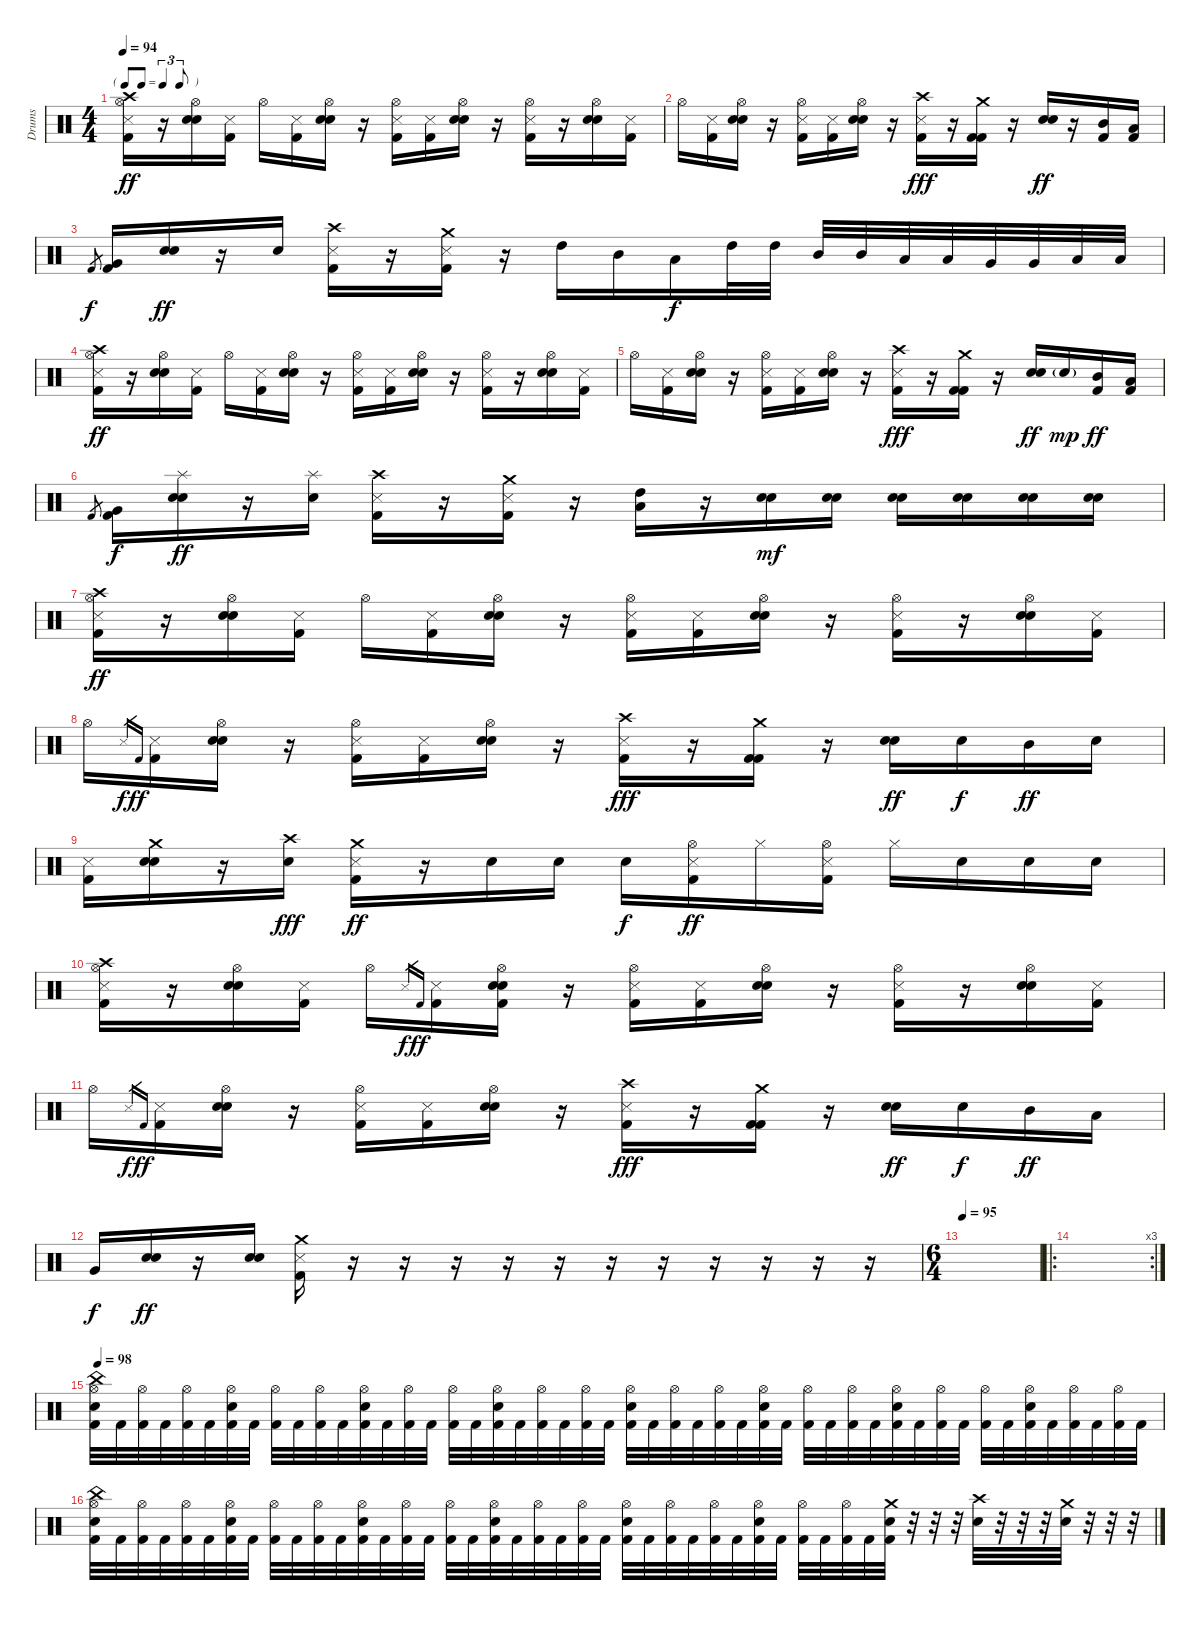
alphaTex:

\track ("Drums" "Drums") {instrument percussion}
\staff {score}
\articulation defaults
\ts (4 4)
\tf triplet8th
\tempo 94
\clef neutral
\ks c
("Hi-Hat (open)" "Crash high (hit)" "Metronome (hit)" "Kick (hit) 2").16{dy ff} r.16 ("Hi-Hat (open)" "Electric Snare (hit)" "Metronome (bell)").16 ("Metronome (hit)" "Kick (hit) 2").16 "Hi-Hat (open)".16 ("Metronome (hit)" "Kick (hit) 2").16 ("Hi-Hat (open)" "Electric Snare (hit)" "Metronome (bell)").16 r.16 ("Hi-Hat (open)" "Metronome (hit)" "Kick (hit) 2").16 ("Metronome (hit)" "Kick (hit) 2").16 ("Hi-Hat (open)" "Electric Snare (hit)" "Metronome (bell)").16 r.16 ("Hi-Hat (open)" "Metronome (hit)" "Kick (hit) 2").16 r.16 ("Hi-Hat (open)" "Electric Snare (hit)" "Metronome (bell)").16 ("Metronome (hit)" "Kick (hit) 2").16 |
"Hi-Hat (open)".16 ("Metronome (hit)" "Kick (hit) 2").16 ("Hi-Hat (open)" "Electric Snare (hit)" "Metronome (bell)").16 r.16 ("Hi-Hat (open)" "Metronome (hit)" "Kick (hit) 2").16 ("Metronome (hit)" "Kick (hit) 2").16 ("Hi-Hat (open)" "Electric Snare (hit)" "Metronome (bell)").16 r.16 ("Crash high (hit)" "Metronome (hit)" "Kick (hit) 2").16{dy fff} r.16 ("Crash medium (hit)" "Kick (hit) 2" "Kick (hit) 2").16 r.16 ("Electric Snare (hit)" "Metronome (bell)").16{dy ff} r.16 ("Mid Tom (hit)" "Kick (hit) 2").16 ("Low Tom (hit)" "Kick (hit) 2").16 |
"Kick (hit) 2".8{gr dy f} ("Very Low Tom (hit)" "Kick (hit) 2").16 ("Electric Snare (hit)" "Metronome (bell)").16{dy ff} r.16 "Electric Snare (hit)".16 ("Crash high (hit)" "Metronome (hit)" "Kick (hit) 2").16 r.16 ("Crash medium (hit)" "Metronome (hit)" "Kick (hit) 2").16 r.16 "High Tom (hit)".16 "Mid Tom (hit)".16 "Low Tom (hit)".16{dy f} "High Tom (hit)".32 "High Tom (hit)".32 "Mid Tom (hit)".32 "Mid Tom (hit)".32 "Low Tom (hit)".32 "Low Tom (hit)".32 "Very Low Tom (hit)".32 "Very Low Tom (hit)".32 "Low Floor Tom (hit)".32 "Low Floor Tom (hit)".32 |
("Hi-Hat (open)" "Crash high (hit)" "Metronome (hit)" "Kick (hit) 2").16{dy ff} r.16 ("Hi-Hat (open)" "Electric Snare (hit)" "Metronome (bell)").16 ("Metronome (hit)" "Kick (hit) 2").16 "Hi-Hat (open)".16 ("Metronome (hit)" "Kick (hit) 2").16 ("Hi-Hat (open)" "Electric Snare (hit)" "Metronome (bell)").16 r.16 ("Hi-Hat (open)" "Metronome (hit)" "Kick (hit) 2").16 ("Metronome (hit)" "Kick (hit) 2").16 ("Hi-Hat (open)" "Electric Snare (hit)" "Metronome (bell)").16 r.16 ("Hi-Hat (open)" "Metronome (hit)" "Kick (hit) 2").16 r.16 ("Hi-Hat (open)" "Electric Snare (hit)" "Metronome (bell)").16 ("Metronome (hit)" "Kick (hit) 2").16 |
"Hi-Hat (open)".16 ("Metronome (hit)" "Kick (hit) 2").16 ("Hi-Hat (open)" "Electric Snare (hit)" "Metronome (bell)").16 r.16 ("Hi-Hat (open)" "Metronome (hit)" "Kick (hit) 2").16 ("Metronome (hit)" "Kick (hit) 2").16 ("Hi-Hat (open)" "Electric Snare (hit)" "Metronome (bell)").16 r.16 ("Crash high (hit)" "Metronome (hit)" "Kick (hit) 2").16{dy fff} r.16 ("Crash medium (hit)" "Kick (hit) 2" "Kick (hit) 2").16 r.16 ("Electric Snare (hit)" "Metronome (bell)").16{dy ff} "Electric Snare (hit)"{g}.16{dy mp} ("Mid Tom (hit)" "Kick (hit) 2").16{dy ff} ("Low Tom (hit)" "Kick (hit) 2").16 |
"Kick (hit) 2".8{gr} ("Very Low Tom (hit)" "Kick (hit) 2").16{dy f} ("Splash (hit)" "Electric Snare (hit)" "Metronome (bell)").16{dy ff} r.16 ("Splash (hit)" "Electric Snare (hit)").16 ("Crash high (hit)" "Metronome (hit)" "Kick (hit) 2").16 r.16 ("Crash medium (hit)" "Metronome (hit)" "Kick (hit) 2").16 r.16 ("Low Tom (hit)" "High Tom (hit)").16 r.16 ("Electric Snare (hit)" "Metronome (bell)").16{dy mf} ("Electric Snare (hit)" "Metronome (bell)").16 ("Electric Snare (hit)" "Metronome (bell)").16 ("Electric Snare (hit)" "Metronome (bell)").16 ("Electric Snare (hit)" "Metronome (bell)").16 ("Electric Snare (hit)" "Metronome (bell)").16 |
("Hi-Hat (open)" "Crash high (hit)" "Metronome (hit)" "Kick (hit) 2").16{dy ff} r.16 ("Hi-Hat (open)" "Electric Snare (hit)" "Metronome (bell)").16 ("Metronome (hit)" "Kick (hit) 2").16 "Hi-Hat (open)".16 ("Metronome (hit)" "Kick (hit) 2").16 ("Hi-Hat (open)" "Electric Snare (hit)" "Metronome (bell)").16 r.16 ("Hi-Hat (open)" "Metronome (hit)" "Kick (hit) 2").16 ("Metronome (hit)" "Kick (hit) 2").16 ("Hi-Hat (open)" "Electric Snare (hit)" "Metronome (bell)").16 r.16 ("Hi-Hat (open)" "Metronome (hit)" "Kick (hit) 2").16 r.16 ("Hi-Hat (open)" "Electric Snare (hit)" "Metronome (bell)").16 ("Metronome (hit)" "Kick (hit) 2").16 |
"Hi-Hat (open)".16 "Metronome (hit)".16{gr dy f} "Kick (hit) 2".16{gr dy ff} ("Metronome (hit)" "Kick (hit) 2").16 ("Hi-Hat (open)" "Electric Snare (hit)" "Metronome (bell)").16 r.16 ("Hi-Hat (open)" "Metronome (hit)" "Kick (hit) 2").16 ("Metronome (hit)" "Kick (hit) 2").16 ("Hi-Hat (open)" "Electric Snare (hit)" "Metronome (bell)").16 r.16 ("Crash high (hit)" "Metronome (hit)" "Kick (hit) 2").16{dy fff} r.16 ("Crash medium (hit)" "Kick (hit) 2" "Kick (hit) 2").16 r.16 ("Electric Snare (hit)" "Metronome (bell)").16{dy ff} "Electric Snare (hit)".16{dy f} "Mid Tom (hit)".16{dy ff} "Electric Snare (hit)".16 |
("Metronome (hit)" "Kick (hit) 2").16 ("Crash medium (hit)" "Electric Snare (hit)" "Metronome (bell)").16 r.16 ("Crash high (hit)" "Electric Snare (hit)").16{dy fff} ("Crash medium (hit)" "Metronome (hit)" "Kick (hit) 2").16{dy ff} r.16 "Electric Snare (hit)".16 "Electric Snare (hit)".16 "Electric Snare (hit)".16{dy f} ("Hi-Hat (open)" "Metronome (hit)" "Kick (hit) 2").16{dy ff} "Hi-Hat (closed)".16 ("Hi-Hat (open)" "Metronome (hit)" "Kick (hit) 2").16 "Hi-Hat (closed)".16 "Electric Snare (hit)".16 "Electric Snare (hit)".16 "Electric Snare (hit)".16 |
("Hi-Hat (open)" "Crash high (hit)" "Metronome (hit)" "Kick (hit) 2").16 r.16 ("Hi-Hat (open)" "Electric Snare (hit)" "Metronome (bell)").16 ("Metronome (hit)" "Kick (hit) 2").16 "Hi-Hat (open)".16 "Metronome (hit)".16{gr dy f} "Kick (hit) 2".16{gr dy ff} ("Metronome (hit)" "Kick (hit) 2").16 ("Hi-Hat (open)" "Electric Snare (hit)" "Metronome (bell)" "Kick (hit) 2").16 r.16 ("Hi-Hat (open)" "Metronome (hit)" "Kick (hit) 2").16 ("Metronome (hit)" "Kick (hit) 2").16 ("Hi-Hat (open)" "Electric Snare (hit)" "Metronome (bell)").16 r.16 ("Hi-Hat (open)" "Metronome (hit)" "Kick (hit) 2").16 r.16 ("Hi-Hat (open)" "Electric Snare (hit)" "Metronome (bell)").16 ("Metronome (hit)" "Kick (hit) 2").16 |
"Hi-Hat (open)".16 "Metronome (hit)".16{gr dy f} "Kick (hit) 2".16{gr dy ff} ("Metronome (hit)" "Kick (hit) 2").16 ("Hi-Hat (open)" "Electric Snare (hit)" "Metronome (bell)").16 r.16 ("Hi-Hat (open)" "Metronome (hit)" "Kick (hit) 2").16 ("Metronome (hit)" "Kick (hit) 2").16 ("Hi-Hat (open)" "Electric Snare (hit)" "Metronome (bell)").16 r.16 ("Crash high (hit)" "Metronome (hit)" "Kick (hit) 2").16{dy fff} r.16 ("Crash medium (hit)" "Kick (hit) 2" "Kick (hit) 2").16 r.16 ("Electric Snare (hit)" "Metronome (bell)").16{dy ff} "Electric Snare (hit)".16{dy f} "Mid Tom (hit)".16{dy ff} "Low Tom (hit)".16 |
"Very Low Tom (hit)".16{dy f} ("Electric Snare (hit)" "Metronome (bell)").16{dy ff} r.16 ("Electric Snare (hit)" "Metronome (bell)").16 ("Crash medium (hit)" "Metronome (hit)" "Kick (hit) 2").16 r.16 r.16 r.16 r.16 r.16 r.16 r.16 r.16 r.16 r.16 r.16 |
\ts (6 4)
\tempo 95
|
\ro
\rc 3
|
\tempo 98
("Hi-Hat (open)" "China (hit)" "Electric Snare (hit)" "Kick (hit) 2").32 "Kick (hit) 2".32 ("Hi-Hat (open)" "Kick (hit) 2").32 "Kick (hit) 2".32 ("Hi-Hat (open)" "Kick (hit) 2").32 "Kick (hit) 2".32 ("Hi-Hat (open)" "Electric Snare (hit)" "Kick (hit) 2").32 "Kick (hit) 2".32 ("Hi-Hat (open)" "Kick (hit) 2").32 "Kick (hit) 2".32 ("Hi-Hat (open)" "Kick (hit) 2").32 "Kick (hit) 2".32 ("Hi-Hat (open)" "Electric Snare (hit)" "Kick (hit) 2").32 "Kick (hit) 2".32 ("Hi-Hat (open)" "Kick (hit) 2").32 "Kick (hit) 2".32 ("Hi-Hat (open)" "Kick (hit) 2").32 "Kick (hit) 2".32 ("Hi-Hat (open)" "Electric Snare (hit)" "Kick (hit) 2").32 "Kick (hit) 2".32 ("Hi-Hat (open)" "Kick (hit) 2").32 "Kick (hit) 2".32 ("Hi-Hat (open)" "Kick (hit) 2").32 "Kick (hit) 2".32 ("Hi-Hat (open)" "Electric Snare (hit)" "Kick (hit) 2").32 "Kick (hit) 2".32 ("Hi-Hat (open)" "Kick (hit) 2").32 "Kick (hit) 2".32 ("Hi-Hat (open)" "Kick (hit) 2").32 "Kick (hit) 2".32 ("Hi-Hat (open)" "Electric Snare (hit)" "Kick (hit) 2").32 "Kick (hit) 2".32 ("Hi-Hat (open)" "Kick (hit) 2").32 "Kick (hit) 2".32 ("Hi-Hat (open)" "Kick (hit) 2").32 "Kick (hit) 2".32 ("Hi-Hat (open)" "Electric Snare (hit)" "Kick (hit) 2").32 "Kick (hit) 2".32 ("Hi-Hat (open)" "Kick (hit) 2").32 "Kick (hit) 2".32 ("Hi-Hat (open)" "Kick (hit) 2").32 "Kick (hit) 2".32 ("Hi-Hat (open)" "Electric Snare (hit)" "Kick (hit) 2").32 "Kick (hit) 2".32 ("Hi-Hat (open)" "Kick (hit) 2").32 "Kick (hit) 2".32 ("Hi-Hat (open)" "Kick (hit) 2").32 "Kick (hit) 2".32 |
("Hi-Hat (open)" "China (hit)" "Electric Snare (hit)" "Kick (hit) 2").32 "Kick (hit) 2".32 ("Hi-Hat (open)" "Kick (hit) 2").32 "Kick (hit) 2".32 ("Hi-Hat (open)" "Kick (hit) 2").32 "Kick (hit) 2".32 ("Hi-Hat (open)" "Electric Snare (hit)" "Kick (hit) 2").32 "Kick (hit) 2".32 ("Hi-Hat (open)" "Kick (hit) 2").32 "Kick (hit) 2".32 ("Hi-Hat (open)" "Kick (hit) 2").32 "Kick (hit) 2".32 ("Hi-Hat (open)" "Electric Snare (hit)" "Kick (hit) 2").32 "Kick (hit) 2".32 ("Hi-Hat (open)" "Kick (hit) 2").32 "Kick (hit) 2".32 ("Hi-Hat (open)" "Kick (hit) 2").32 "Kick (hit) 2".32 ("Hi-Hat (open)" "Electric Snare (hit)" "Kick (hit) 2").32 "Kick (hit) 2".32 ("Hi-Hat (open)" "Kick (hit) 2").32 "Kick (hit) 2".32 ("Hi-Hat (open)" "Kick (hit) 2").32 "Kick (hit) 2".32 ("Hi-Hat (open)" "Electric Snare (hit)" "Kick (hit) 2").32 "Kick (hit) 2".32 ("Hi-Hat (open)" "Kick (hit) 2").32 "Kick (hit) 2".32 ("Hi-Hat (open)" "Kick (hit) 2").32 "Kick (hit) 2".32 ("Hi-Hat (open)" "Electric Snare (hit)" "Kick (hit) 2").32 "Kick (hit) 2".32 ("Hi-Hat (open)" "Kick (hit) 2").32 "Kick (hit) 2".32 ("Hi-Hat (open)" "Kick (hit) 2").32 "Kick (hit) 2".32 ("Crash medium (hit)" "Electric Snare (hit)" "Kick (hit) 2").32 r.32 r.32 r.32 ("Crash high (hit)" "Electric Snare (hit)").32 r.32 r.32 r.32 ("Crash medium (hit)" "Electric Snare (hit)").32 r.32 r.32 r.32
